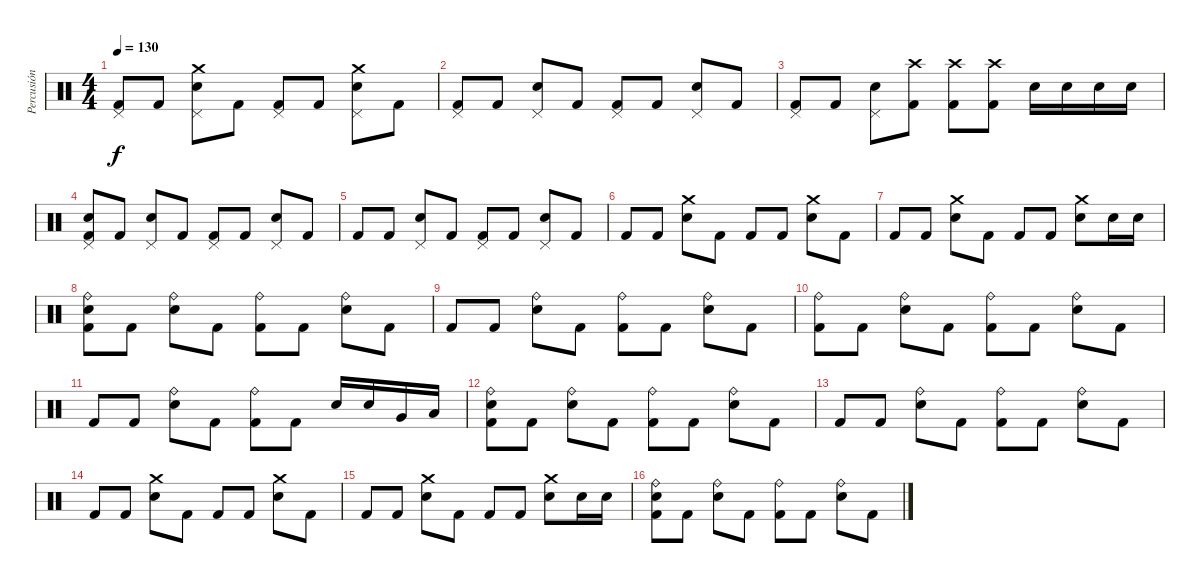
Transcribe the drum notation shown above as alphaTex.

\track ("Percusión" "Percusión") {instrument percussion}
\staff {score}
\articulation defaults
\ts (4 4)
\tempo 130
\clef neutral
\ks c
("Kick (hit) 2" "Pedal Hi-Hat (hit)").8{dy f} "Kick (hit) 2".8 ("Electric Snare (hit)" "Pedal Hi-Hat (hit)" "Crash medium (hit)").8 "Kick (hit) 2".8 ("Kick (hit) 2" "Pedal Hi-Hat (hit)").8 "Kick (hit) 2".8 ("Electric Snare (hit)" "Pedal Hi-Hat (hit)" "Crash medium (hit)").8 "Kick (hit) 2".8 |
("Kick (hit) 2" "Pedal Hi-Hat (hit)").8 "Kick (hit) 2".8 ("Electric Snare (hit)" "Pedal Hi-Hat (hit)").8 "Kick (hit) 2".8 ("Kick (hit) 2" "Pedal Hi-Hat (hit)").8 "Kick (hit) 2".8 ("Electric Snare (hit)" "Pedal Hi-Hat (hit)").8 "Kick (hit) 2".8 |
("Kick (hit) 2" "Pedal Hi-Hat (hit)").8 "Kick (hit) 2".8 ("Electric Snare (hit)" "Pedal Hi-Hat (hit)").8 ("Kick (hit) 2" "Crash high (hit)").8 ("Kick (hit) 2" "Crash high (hit)").8 ("Kick (hit) 2" "Crash high (hit)").8 "Electric Snare (hit)".16 "Electric Snare (hit)".16 "Electric Snare (hit)".16 "Electric Snare (hit)".16 |
("Kick (hit) 2" "Electric Snare (hit)" "Pedal Hi-Hat (hit)").8 "Kick (hit) 2".8 ("Electric Snare (hit)" "Pedal Hi-Hat (hit)").8 "Kick (hit) 2".8 ("Kick (hit) 2" "Pedal Hi-Hat (hit)").8 "Kick (hit) 2".8 ("Electric Snare (hit)" "Pedal Hi-Hat (hit)").8 "Kick (hit) 2".8 |
"Kick (hit) 2".8 "Kick (hit) 2".8 ("Electric Snare (hit)" "Pedal Hi-Hat (hit)").8 "Kick (hit) 2".8 ("Kick (hit) 2" "Pedal Hi-Hat (hit)").8 "Kick (hit) 2".8 ("Electric Snare (hit)" "Pedal Hi-Hat (hit)").8 "Kick (hit) 2".8 |
"Kick (hit) 2".8 "Kick (hit) 2".8 ("Electric Snare (hit)" "Crash medium (hit)").8 "Kick (hit) 2".8 "Kick (hit) 2".8 "Kick (hit) 2".8 ("Electric Snare (hit)" "Crash medium (hit)").8 "Kick (hit) 2".8 |
"Kick (hit) 2".8 "Kick (hit) 2".8 ("Electric Snare (hit)" "Crash medium (hit)").8 "Kick (hit) 2".8 "Kick (hit) 2".8 "Kick (hit) 2".8 ("Electric Snare (hit)" "Crash medium (hit)").8 "Electric Snare (hit)".16 "Electric Snare (hit)".16 |
("Kick (hit) 2" "Electric Snare (hit)" "Ride (bell)").8 "Kick (hit) 2".8 ("Electric Snare (hit)" "Ride (bell)").8 "Kick (hit) 2".8 ("Kick (hit) 2" "Ride (bell)").8 "Kick (hit) 2".8 ("Electric Snare (hit)" "Ride (bell)").8 "Kick (hit) 2".8 |
"Kick (hit) 2".8 "Kick (hit) 2".8 ("Electric Snare (hit)" "Ride (bell)").8 "Kick (hit) 2".8 ("Kick (hit) 2" "Ride (bell)").8 "Kick (hit) 2".8 ("Electric Snare (hit)" "Ride (bell)").8 "Kick (hit) 2".8 |
("Kick (hit) 2" "Ride (bell)").8 "Kick (hit) 2".8 ("Electric Snare (hit)" "Ride (bell)").8 "Kick (hit) 2".8 ("Kick (hit) 2" "Ride (bell)").8 "Kick (hit) 2".8 ("Electric Snare (hit)" "Ride (bell)").8 "Kick (hit) 2".8 |
"Kick (hit) 2".8 "Kick (hit) 2".8 ("Electric Snare (hit)" "Ride (bell)").8 "Kick (hit) 2".8 ("Kick (hit) 2" "Ride (bell)").8 "Kick (hit) 2".8 "Electric Snare (hit)".16 "Electric Snare (hit)".16 "Very Low Tom (hit)".16 "Low Floor Tom (hit)".16 |
("Kick (hit) 2" "Electric Snare (hit)" "Ride (bell)").8 "Kick (hit) 2".8 ("Electric Snare (hit)" "Ride (bell)").8 "Kick (hit) 2".8 ("Kick (hit) 2" "Ride (bell)").8 "Kick (hit) 2".8 ("Electric Snare (hit)" "Ride (bell)").8 "Kick (hit) 2".8 |
"Kick (hit) 2".8 "Kick (hit) 2".8 ("Electric Snare (hit)" "Ride (bell)").8 "Kick (hit) 2".8 ("Kick (hit) 2" "Ride (bell)").8 "Kick (hit) 2".8 ("Electric Snare (hit)" "Ride (bell)").8 "Kick (hit) 2".8 |
"Kick (hit) 2".8 "Kick (hit) 2".8 ("Electric Snare (hit)" "Crash medium (hit)").8 "Kick (hit) 2".8 "Kick (hit) 2".8 "Kick (hit) 2".8 ("Electric Snare (hit)" "Crash medium (hit)").8 "Kick (hit) 2".8 |
"Kick (hit) 2".8 "Kick (hit) 2".8 ("Electric Snare (hit)" "Crash medium (hit)").8 "Kick (hit) 2".8 "Kick (hit) 2".8 "Kick (hit) 2".8 ("Electric Snare (hit)" "Crash medium (hit)").8 "Electric Snare (hit)".16 "Electric Snare (hit)".16 |
("Kick (hit) 2" "Electric Snare (hit)" "Ride (bell)").8 "Kick (hit) 2".8 ("Electric Snare (hit)" "Ride (bell)").8 "Kick (hit) 2".8 ("Kick (hit) 2" "Ride (bell)").8 "Kick (hit) 2".8 ("Electric Snare (hit)" "Ride (bell)").8 "Kick (hit) 2".8
